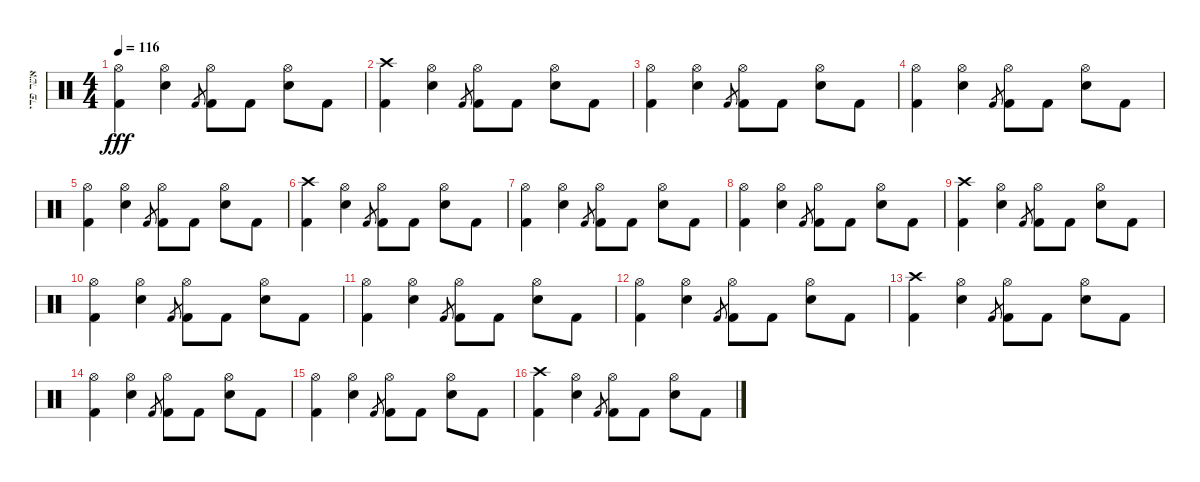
\track ("אשר פדי" "אשר פדי") {instrument percussion}
\staff {score}
\articulation defaults
\ts (4 4)
\tempo 116
\clef neutral
\ks c
("Hi-Hat (open)" "Kick (hit) 2").4{dy fff} ("Hi-Hat (open)" "Electric Snare (hit)").4 "Kick (hit) 2".8{gr} ("Hi-Hat (open)" "Kick (hit) 2").8 "Kick (hit) 2".8 ("Hi-Hat (open)" "Electric Snare (hit)").8 "Kick (hit) 2".8 |
("Crash high (hit)" "Kick (hit) 2").4 ("Hi-Hat (open)" "Electric Snare (hit)").4 "Kick (hit) 2".8{gr} ("Hi-Hat (open)" "Kick (hit) 2").8 "Kick (hit) 2".8 ("Hi-Hat (open)" "Snare (hit) 2").8 "Kick (hit) 2".8 |
("Hi-Hat (open)" "Kick (hit) 2").4 ("Hi-Hat (open)" "Snare (hit) 2").4 "Kick (hit) 2".8{gr} ("Hi-Hat (open)" "Kick (hit) 2").8 "Kick (hit) 2".8 ("Hi-Hat (open)" "Electric Snare (hit)").8 "Kick (hit) 2".8 |
("Hi-Hat (open)" "Kick (hit) 2").4 ("Hi-Hat (open)" "Electric Snare (hit)").4 "Kick (hit) 2".8{gr} ("Hi-Hat (open)" "Kick (hit) 2").8 "Kick (hit) 2".8 ("Hi-Hat (open)" "Electric Snare (hit)").8 "Kick (hit) 2".8 |
("Hi-Hat (open)" "Kick (hit) 2").4 ("Hi-Hat (open)" "Electric Snare (hit)").4 "Kick (hit) 2".8{gr} ("Hi-Hat (open)" "Kick (hit) 2").8 "Kick (hit) 2".8 ("Hi-Hat (open)" "Electric Snare (hit)").8 "Kick (hit) 2".8 |
("Crash high (hit)" "Kick (hit) 2").4 ("Hi-Hat (open)" "Electric Snare (hit)").4 "Kick (hit) 2".8{gr} ("Hi-Hat (open)" "Kick (hit) 2").8 "Kick (hit) 2".8 ("Hi-Hat (open)" "Snare (hit) 2").8 "Kick (hit) 2".8 |
("Hi-Hat (open)" "Kick (hit) 2").4 ("Hi-Hat (open)" "Snare (hit) 2").4 "Kick (hit) 2".8{gr} ("Hi-Hat (open)" "Kick (hit) 2").8 "Kick (hit) 2".8 ("Hi-Hat (open)" "Electric Snare (hit)").8 "Kick (hit) 2".8 |
("Hi-Hat (open)" "Kick (hit) 2").4 ("Hi-Hat (open)" "Electric Snare (hit)").4 "Kick (hit) 2".8{gr} ("Hi-Hat (open)" "Kick (hit) 2").8 "Kick (hit) 2".8 ("Hi-Hat (open)" "Electric Snare (hit)").8 "Kick (hit) 2".8 |
("Crash high (hit)" "Kick (hit) 2").4 ("Hi-Hat (open)" "Electric Snare (hit)").4 "Kick (hit) 2".8{gr} ("Hi-Hat (open)" "Kick (hit) 2").8 "Kick (hit) 2".8 ("Hi-Hat (open)" "Snare (hit) 2").8 "Kick (hit) 2".8 |
("Hi-Hat (open)" "Kick (hit) 2").4 ("Hi-Hat (open)" "Snare (hit) 2").4 "Kick (hit) 2".8{gr} ("Hi-Hat (open)" "Kick (hit) 2").8 "Kick (hit) 2".8 ("Hi-Hat (open)" "Electric Snare (hit)").8 "Kick (hit) 2".8 |
("Hi-Hat (open)" "Kick (hit) 2").4 ("Hi-Hat (open)" "Electric Snare (hit)").4 "Kick (hit) 2".8{gr} ("Hi-Hat (open)" "Kick (hit) 2").8 "Kick (hit) 2".8 ("Hi-Hat (open)" "Electric Snare (hit)").8 "Kick (hit) 2".8 |
("Hi-Hat (open)" "Kick (hit) 2").4 ("Hi-Hat (open)" "Electric Snare (hit)").4 "Kick (hit) 2".8{gr} ("Hi-Hat (open)" "Kick (hit) 2").8 "Kick (hit) 2".8 ("Hi-Hat (open)" "Electric Snare (hit)").8 "Kick (hit) 2".8 |
("Crash high (hit)" "Kick (hit) 2").4 ("Hi-Hat (open)" "Electric Snare (hit)").4 "Kick (hit) 2".8{gr} ("Hi-Hat (open)" "Kick (hit) 2").8 "Kick (hit) 2".8 ("Hi-Hat (open)" "Snare (hit) 2").8 "Kick (hit) 2".8 |
("Hi-Hat (open)" "Kick (hit) 2").4 ("Hi-Hat (open)" "Snare (hit) 2").4 "Kick (hit) 2".8{gr} ("Hi-Hat (open)" "Kick (hit) 2").8 "Kick (hit) 2".8 ("Hi-Hat (open)" "Electric Snare (hit)").8 "Kick (hit) 2".8 |
("Hi-Hat (open)" "Kick (hit) 2").4 ("Hi-Hat (open)" "Electric Snare (hit)").4 "Kick (hit) 2".8{gr} ("Hi-Hat (open)" "Kick (hit) 2").8 "Kick (hit) 2".8 ("Hi-Hat (open)" "Electric Snare (hit)").8 "Kick (hit) 2".8 |
("Crash high (hit)" "Kick (hit) 2").4 ("Hi-Hat (open)" "Electric Snare (hit)").4 "Kick (hit) 2".8{gr} ("Hi-Hat (open)" "Kick (hit) 2").8 "Kick (hit) 2".8 ("Hi-Hat (open)" "Snare (hit) 2").8 "Kick (hit) 2".8
